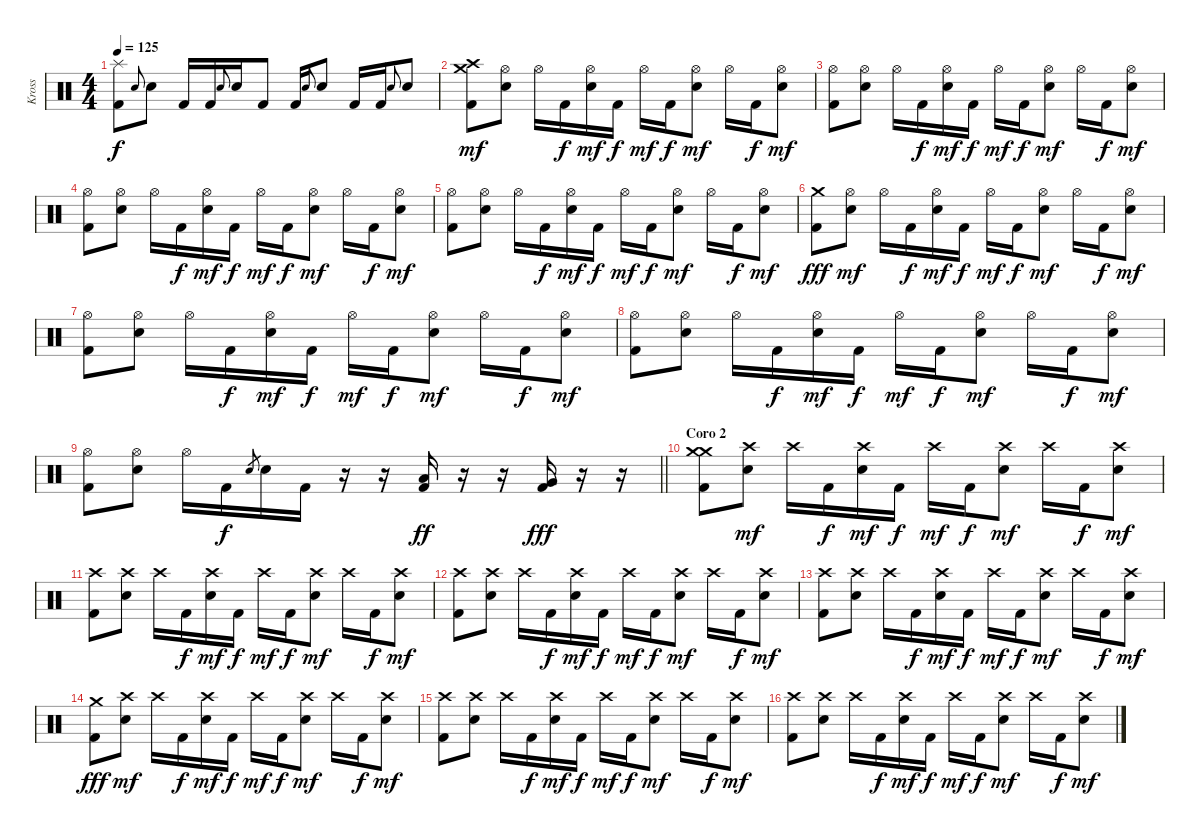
\track ("Kross" "Kross") {instrument percussion}
\staff {score}
\articulation defaults
\ts (4 4)
\tempo 125
\clef neutral
\ks c
("Splash (hit)" "Kick (hit) 2").8{dy f} "Snare (hit) 2".8{gr onbeat} "Snare (hit) 2".8 "Kick (hit) 2".16 "Kick (hit) 2".16 "Snare (hit) 2".8{gr onbeat} "Snare (hit) 2".16 "Kick (hit) 2".8 "Kick (hit) 2".16 "Snare (hit) 2".8{gr onbeat} "Snare (hit) 2".8 "Kick (hit) 2".16 "Kick (hit) 2".16 "Snare (hit) 2".8{gr onbeat} "Snare (hit) 2".8 |
("Crash medium (hit)" "Crash high (hit)" "Kick (hit) 2").8{dy mf} ("Hi-Hat (open)" "Snare (hit) 2").8 "Hi-Hat (open)".16 "Kick (hit) 2".16{dy f} ("Hi-Hat (open)" "Snare (hit) 2").16{dy mf} "Kick (hit) 2".16{dy f} "Hi-Hat (open)".16{dy mf} "Kick (hit) 2".16{dy f} ("Hi-Hat (open)" "Snare (hit) 2").8{dy mf} "Hi-Hat (open)".16 "Kick (hit) 2".16{dy f} ("Hi-Hat (open)" "Snare (hit) 2").8{dy mf} |
("Hi-Hat (open)" "Kick (hit) 2").8 ("Hi-Hat (open)" "Snare (hit) 2").8 "Hi-Hat (open)".16 "Kick (hit) 2".16{dy f} ("Hi-Hat (open)" "Snare (hit) 2").16{dy mf} "Kick (hit) 2".16{dy f} "Hi-Hat (open)".16{dy mf} "Kick (hit) 2".16{dy f} ("Hi-Hat (open)" "Snare (hit) 2").8{dy mf} "Hi-Hat (open)".16 "Kick (hit) 2".16{dy f} ("Hi-Hat (open)" "Snare (hit) 2").8{dy mf} |
("Hi-Hat (open)" "Kick (hit) 2").8 ("Hi-Hat (open)" "Snare (hit) 2").8 "Hi-Hat (open)".16 "Kick (hit) 2".16{dy f} ("Hi-Hat (open)" "Snare (hit) 2").16{dy mf} "Kick (hit) 2".16{dy f} "Hi-Hat (open)".16{dy mf} "Kick (hit) 2".16{dy f} ("Hi-Hat (open)" "Snare (hit) 2").8{dy mf} "Hi-Hat (open)".16 "Kick (hit) 2".16{dy f} ("Hi-Hat (open)" "Snare (hit) 2").8{dy mf} |
("Hi-Hat (open)" "Kick (hit) 2").8 ("Hi-Hat (open)" "Snare (hit) 2").8 "Hi-Hat (open)".16 "Kick (hit) 2".16{dy f} ("Hi-Hat (open)" "Snare (hit) 2").16{dy mf} "Kick (hit) 2".16{dy f} "Hi-Hat (open)".16{dy mf} "Kick (hit) 2".16{dy f} ("Hi-Hat (open)" "Snare (hit) 2").8{dy mf} "Hi-Hat (open)".16 "Kick (hit) 2".16{dy f} ("Hi-Hat (open)" "Snare (hit) 2").8{dy mf} |
("Crash medium (hit)" "Kick (hit) 2").8{dy fff} ("Hi-Hat (open)" "Snare (hit) 2").8{dy mf} "Hi-Hat (open)".16 "Kick (hit) 2".16{dy f} ("Hi-Hat (open)" "Snare (hit) 2").16{dy mf} "Kick (hit) 2".16{dy f} "Hi-Hat (open)".16{dy mf} "Kick (hit) 2".16{dy f} ("Hi-Hat (open)" "Snare (hit) 2").8{dy mf} "Hi-Hat (open)".16 "Kick (hit) 2".16{dy f} ("Hi-Hat (open)" "Snare (hit) 2").8{dy mf} |
("Hi-Hat (open)" "Kick (hit) 2").8 ("Hi-Hat (open)" "Snare (hit) 2").8 "Hi-Hat (open)".16 "Kick (hit) 2".16{dy f} ("Hi-Hat (open)" "Snare (hit) 2").16{dy mf} "Kick (hit) 2".16{dy f} "Hi-Hat (open)".16{dy mf} "Kick (hit) 2".16{dy f} ("Hi-Hat (open)" "Snare (hit) 2").8{dy mf} "Hi-Hat (open)".16 "Kick (hit) 2".16{dy f} ("Hi-Hat (open)" "Snare (hit) 2").8{dy mf} |
("Hi-Hat (open)" "Kick (hit) 2").8 ("Hi-Hat (open)" "Snare (hit) 2").8 "Hi-Hat (open)".16 "Kick (hit) 2".16{dy f} ("Hi-Hat (open)" "Snare (hit) 2").16{dy mf} "Kick (hit) 2".16{dy f} "Hi-Hat (open)".16{dy mf} "Kick (hit) 2".16{dy f} ("Hi-Hat (open)" "Snare (hit) 2").8{dy mf} "Hi-Hat (open)".16 "Kick (hit) 2".16{dy f} ("Hi-Hat (open)" "Snare (hit) 2").8{dy mf} |
\barLineRight lightlight
("Hi-Hat (open)" "Kick (hit) 2").8 ("Hi-Hat (open)" "Snare (hit) 2").8 "Hi-Hat (open)".16 "Kick (hit) 2".16{dy f} "Snare (hit) 2".8{gr} "Snare (hit) 2".16 "Kick (hit) 2".16 r.16 r.16 ("Low Tom (hit)" "Kick (hit) 2").16{dy ff} r.16 r.16 ("Very Low Tom (hit)" "Kick (hit) 2").16{dy fff} r.16 r.16 |
\section ("" "Coro 2")
("Crash medium (hit)" "Crash medium (hit)" "Kick (hit) 2").8 ("Crash high (hit)" "Snare (hit) 2").8{dy mf} "Crash high (hit)".16 "Kick (hit) 2".16{dy f} ("Crash high (hit)" "Snare (hit) 2").16{dy mf} "Kick (hit) 2".16{dy f} "Crash high (hit)".16{dy mf} "Kick (hit) 2".16{dy f} ("Crash high (hit)" "Snare (hit) 2").8{dy mf} "Crash high (hit)".16 "Kick (hit) 2".16{dy f} ("Crash high (hit)" "Snare (hit) 2").8{dy mf} |
("Crash high (hit)" "Kick (hit) 2").8 ("Crash high (hit)" "Snare (hit) 2").8 "Crash high (hit)".16 "Kick (hit) 2".16{dy f} ("Crash high (hit)" "Snare (hit) 2").16{dy mf} "Kick (hit) 2".16{dy f} "Crash high (hit)".16{dy mf} "Kick (hit) 2".16{dy f} ("Crash high (hit)" "Snare (hit) 2").8{dy mf} "Crash high (hit)".16 "Kick (hit) 2".16{dy f} ("Crash high (hit)" "Snare (hit) 2").8{dy mf} |
("Crash high (hit)" "Kick (hit) 2").8 ("Crash high (hit)" "Snare (hit) 2").8 "Crash high (hit)".16 "Kick (hit) 2".16{dy f} ("Crash high (hit)" "Snare (hit) 2").16{dy mf} "Kick (hit) 2".16{dy f} "Crash high (hit)".16{dy mf} "Kick (hit) 2".16{dy f} ("Crash high (hit)" "Snare (hit) 2").8{dy mf} "Crash high (hit)".16 "Kick (hit) 2".16{dy f} ("Crash high (hit)" "Snare (hit) 2").8{dy mf} |
("Crash high (hit)" "Kick (hit) 2").8 ("Crash high (hit)" "Snare (hit) 2").8 "Crash high (hit)".16 "Kick (hit) 2".16{dy f} ("Crash high (hit)" "Snare (hit) 2").16{dy mf} "Kick (hit) 2".16{dy f} "Crash high (hit)".16{dy mf} "Kick (hit) 2".16{dy f} ("Crash high (hit)" "Snare (hit) 2").8{dy mf} "Crash high (hit)".16 "Kick (hit) 2".16{dy f} ("Crash high (hit)" "Snare (hit) 2").8{dy mf} |
("Crash medium (hit)" "Kick (hit) 2").8{dy fff} ("Crash high (hit)" "Snare (hit) 2").8{dy mf} "Crash high (hit)".16 "Kick (hit) 2".16{dy f} ("Crash high (hit)" "Snare (hit) 2").16{dy mf} "Kick (hit) 2".16{dy f} "Crash high (hit)".16{dy mf} "Kick (hit) 2".16{dy f} ("Crash high (hit)" "Snare (hit) 2").8{dy mf} "Crash high (hit)".16 "Kick (hit) 2".16{dy f} ("Crash high (hit)" "Snare (hit) 2").8{dy mf} |
("Crash high (hit)" "Kick (hit) 2").8 ("Crash high (hit)" "Snare (hit) 2").8 "Crash high (hit)".16 "Kick (hit) 2".16{dy f} ("Crash high (hit)" "Snare (hit) 2").16{dy mf} "Kick (hit) 2".16{dy f} "Crash high (hit)".16{dy mf} "Kick (hit) 2".16{dy f} ("Crash high (hit)" "Snare (hit) 2").8{dy mf} "Crash high (hit)".16 "Kick (hit) 2".16{dy f} ("Crash high (hit)" "Snare (hit) 2").8{dy mf} |
("Crash high (hit)" "Kick (hit) 2").8 ("Crash high (hit)" "Snare (hit) 2").8 "Crash high (hit)".16 "Kick (hit) 2".16{dy f} ("Crash high (hit)" "Snare (hit) 2").16{dy mf} "Kick (hit) 2".16{dy f} "Crash high (hit)".16{dy mf} "Kick (hit) 2".16{dy f} ("Crash high (hit)" "Snare (hit) 2").8{dy mf} "Crash high (hit)".16 "Kick (hit) 2".16{dy f} ("Crash high (hit)" "Snare (hit) 2").8{dy mf}
